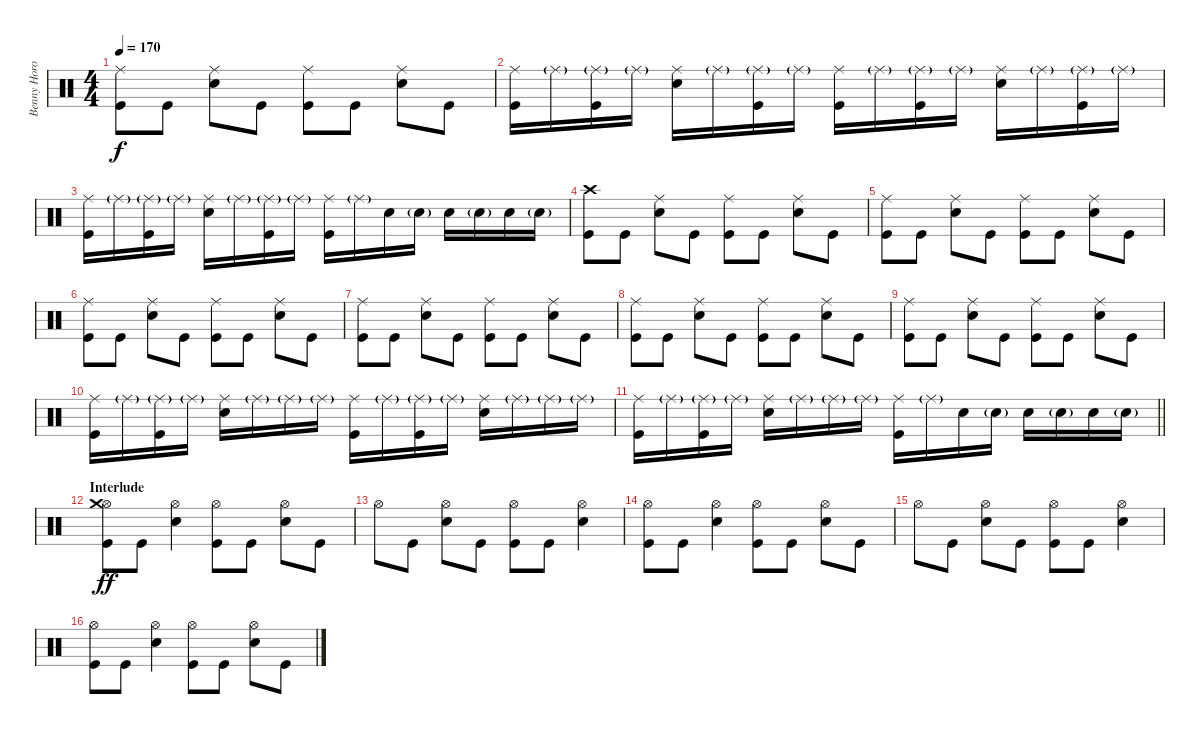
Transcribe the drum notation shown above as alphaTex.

\track ("Benny Horowitz" "Benny Horo") {instrument percussion}
\staff {score}
\articulation defaults
\ts (4 4)
\tempo 170
\clef neutral
\ks c
("Kick (hit)" "Ride (middle)").8{dy f} "Kick (hit)".8 ("Snare (hit) 2" "Ride (middle)").8 "Kick (hit)".8 ("Kick (hit)" "Ride (middle)").8 "Kick (hit)".8 ("Snare (hit) 2" "Ride (middle)").8 "Kick (hit)".8 |
("Kick (hit)" "Ride (middle)").16 "Ride (middle)"{g}.16 ("Kick (hit)" "Ride (middle)"{g}).16 "Ride (middle)"{g}.16 ("Snare (hit) 2" "Ride (middle)").16 "Ride (middle)"{g}.16 ("Kick (hit)" "Ride (middle)"{g}).16 "Ride (middle)"{g}.16 ("Kick (hit)" "Ride (middle)").16 "Ride (middle)"{g}.16 ("Kick (hit)" "Ride (middle)"{g}).16 "Ride (middle)"{g}.16 ("Snare (hit) 2" "Ride (middle)").16 "Ride (middle)"{g}.16 ("Kick (hit)" "Ride (middle)"{g}).16 "Ride (middle)"{g}.16 |
("Kick (hit)" "Ride (middle)").16 "Ride (middle)"{g}.16 ("Kick (hit)" "Ride (middle)"{g}).16 "Ride (middle)"{g}.16 ("Snare (hit) 2" "Ride (middle)").16 "Ride (middle)"{g}.16 ("Kick (hit)" "Ride (middle)"{g}).16 "Ride (middle)"{g}.16 ("Kick (hit)" "Ride (middle)").16 "Ride (middle)"{g}.16 "Snare (hit) 2".16 "Snare (hit) 2"{g}.16 "Snare (hit) 2".16 "Snare (hit) 2"{g}.16 "Snare (hit) 2".16 "Snare (hit) 2"{g}.16 |
("Crash high (hit)" "Kick (hit)").8 "Kick (hit)".8 ("Snare (hit) 2" "Ride (middle)").8 "Kick (hit)".8 ("Kick (hit)" "Ride (middle)").8 "Kick (hit)".8 ("Snare (hit) 2" "Ride (middle)").8 "Kick (hit)".8 |
("Kick (hit)" "Ride (middle)").8 "Kick (hit)".8 ("Snare (hit) 2" "Ride (middle)").8 "Kick (hit)".8 ("Kick (hit)" "Ride (middle)").8 "Kick (hit)".8 ("Snare (hit) 2" "Ride (middle)").8 "Kick (hit)".8 |
("Kick (hit)" "Ride (middle)").8 "Kick (hit)".8 ("Snare (hit) 2" "Ride (middle)").8 "Kick (hit)".8 ("Kick (hit)" "Ride (middle)").8 "Kick (hit)".8 ("Snare (hit) 2" "Ride (middle)").8 "Kick (hit)".8 |
("Kick (hit)" "Ride (middle)").8 "Kick (hit)".8 ("Snare (hit) 2" "Ride (middle)").8 "Kick (hit)".8 ("Kick (hit)" "Ride (middle)").8 "Kick (hit)".8 ("Snare (hit) 2" "Ride (middle)").8 "Kick (hit)".8 |
("Kick (hit)" "Ride (middle)").8 "Kick (hit)".8 ("Snare (hit) 2" "Ride (middle)").8 "Kick (hit)".8 ("Kick (hit)" "Ride (middle)").8 "Kick (hit)".8 ("Snare (hit) 2" "Ride (middle)").8 "Kick (hit)".8 |
("Kick (hit)" "Ride (middle)").8 "Kick (hit)".8 ("Snare (hit) 2" "Ride (middle)").8 "Kick (hit)".8 ("Kick (hit)" "Ride (middle)").8 "Kick (hit)".8 ("Snare (hit) 2" "Ride (middle)").8 "Kick (hit)".8 |
("Kick (hit)" "Ride (middle)").16 "Ride (middle)"{g}.16 ("Kick (hit)" "Ride (middle)"{g}).16 "Ride (middle)"{g}.16 ("Snare (hit) 2" "Ride (middle)").16 "Ride (middle)"{g}.16 "Ride (middle)"{g}.16 "Ride (middle)"{g}.16 ("Kick (hit)" "Ride (middle)").16 "Ride (middle)"{g}.16 ("Kick (hit)" "Ride (middle)"{g}).16 "Ride (middle)"{g}.16 ("Snare (hit) 2" "Ride (middle)").16 "Ride (middle)"{g}.16 "Ride (middle)"{g}.16 "Ride (middle)"{g}.16 |
\barLineRight lightlight
("Kick (hit)" "Ride (middle)").16 "Ride (middle)"{g}.16 ("Kick (hit)" "Ride (middle)"{g}).16 "Ride (middle)"{g}.16 ("Snare (hit) 2" "Ride (middle)").16 "Ride (middle)"{g}.16 "Ride (middle)"{g}.16 "Ride (middle)"{g}.16 ("Kick (hit)" "Ride (middle)").16 "Ride (middle)"{g}.16 "Snare (hit) 2".16 "Snare (hit) 2"{g}.16 "Snare (hit) 2".16 "Snare (hit) 2"{g}.16 "Snare (hit) 2".16 "Snare (hit) 2"{g}.16 |
\section ("" "Interlude")
("Kick (hit)" "Hi-Hat (open)" "Crash medium (hit)").8{dy ff} "Kick (hit)".8 ("Snare (hit) 2" "Hi-Hat (open)").4 ("Kick (hit)" "Hi-Hat (open)").8 "Kick (hit)".8 ("Snare (hit) 2" "Hi-Hat (open)").8 "Kick (hit)".8 |
"Hi-Hat (open)".8 "Kick (hit)".8 ("Snare (hit) 2" "Hi-Hat (open)").8 "Kick (hit)".8 ("Kick (hit)" "Hi-Hat (open)").8 "Kick (hit)".8 ("Snare (hit) 2" "Hi-Hat (open)").4 |
("Kick (hit)" "Hi-Hat (open)").8 "Kick (hit)".8 ("Snare (hit) 2" "Hi-Hat (open)").4 ("Kick (hit)" "Hi-Hat (open)").8 "Kick (hit)".8 ("Snare (hit) 2" "Hi-Hat (open)").8 "Kick (hit)".8 |
"Hi-Hat (open)".8 "Kick (hit)".8 ("Snare (hit) 2" "Hi-Hat (open)").8 "Kick (hit)".8 ("Kick (hit)" "Hi-Hat (open)").8 "Kick (hit)".8 ("Snare (hit) 2" "Hi-Hat (open)").4 |
("Kick (hit)" "Hi-Hat (open)").8 "Kick (hit)".8 ("Snare (hit) 2" "Hi-Hat (open)").4 ("Kick (hit)" "Hi-Hat (open)").8 "Kick (hit)".8 ("Snare (hit) 2" "Hi-Hat (open)").8 "Kick (hit)".8
